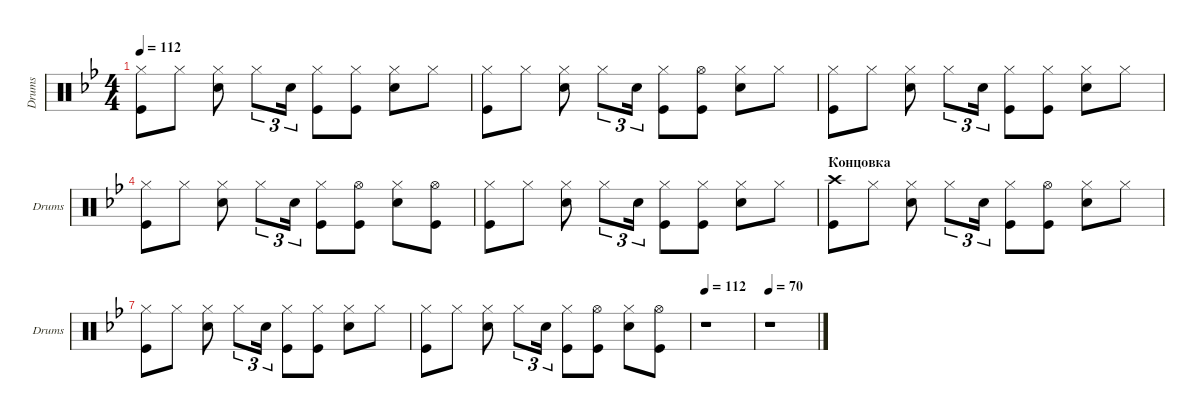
\defaultSystemsLayout 4
\hideDynamics
\bracketExtendMode groupsimilarinstruments
\singleTrackTrackNamePolicy allsystems
\multiTrackTrackNamePolicy allsystems
\otherSystemsTrackNameOrientation horizontal
\defaultBarNumberDisplay FirstOfSystem
\track ("Drums" "Drums") {instrument percussion}
\staff {score}
\articulation defaults
\ts (4 4)
\tempo 112
\clef neutral
\ks gminor
("Kick (hit)" "Hi-Hat (closed)").8{dy mf} "Hi-Hat (closed)".8 ("Hi-Hat (closed)" "Snare (hit) 2").8 "Hi-Hat (closed)".8{tu (3 2)} "Snare (hit) 2".16{tu (3 2)} ("Hi-Hat (closed)" "Kick (hit)").8 ("Hi-Hat (closed)" "Kick (hit)").8 ("Hi-Hat (closed)" "Snare (hit) 2").8 "Hi-Hat (closed)".8 |
("Kick (hit)" "Hi-Hat (closed)").8 "Hi-Hat (closed)".8 ("Hi-Hat (closed)" "Snare (hit) 2").8 "Hi-Hat (closed)".8{tu (3 2)} "Snare (hit) 2".16{tu (3 2)} ("Hi-Hat (closed)" "Kick (hit)").8 ("Hi-Hat (open)" "Kick (hit)").8 ("Hi-Hat (closed)" "Snare (hit) 2").8 "Hi-Hat (closed)".8 |
\scale
0.177692 ("Kick (hit)" "Hi-Hat (closed)").8 "Hi-Hat (closed)".8 ("Hi-Hat (closed)" "Snare (hit) 2").8 "Hi-Hat (closed)".8{tu (3 2)} "Snare (hit) 2".16{tu (3 2)} ("Hi-Hat (closed)" "Kick (hit)").8 ("Hi-Hat (closed)" "Kick (hit)").8 ("Hi-Hat (closed)" "Snare (hit) 2").8 "Hi-Hat (closed)".8 |
\scale
0.153077 ("Kick (hit)" "Hi-Hat (closed)").8 "Hi-Hat (closed)".8 ("Hi-Hat (closed)" "Snare (hit) 2").8 "Hi-Hat (closed)".8{tu (3 2)} "Snare (hit) 2".16{tu (3 2)} ("Hi-Hat (closed)" "Kick (hit)").8 ("Hi-Hat (open)" "Kick (hit)").8 ("Hi-Hat (closed)" "Snare (hit) 2").8 ("Hi-Hat (open)" "Kick (hit)").8 |
\scale
0.153077 ("Kick (hit)" "Hi-Hat (closed)").8 "Hi-Hat (closed)".8 ("Hi-Hat (closed)" "Snare (hit) 2").8 "Hi-Hat (closed)".8{tu (3 2)} "Snare (hit) 2".16{tu (3 2)} ("Hi-Hat (closed)" "Kick (hit)").8 ("Hi-Hat (closed)" "Kick (hit)").8 ("Hi-Hat (closed)" "Snare (hit) 2").8 "Hi-Hat (closed)".8 |
\section ("" "Концовка")
\scale
0.153077 ("Kick (hit)" "Crash high (hit)").8 "Hi-Hat (closed)".8 ("Hi-Hat (closed)" "Snare (hit) 2").8 "Hi-Hat (closed)".8{tu (3 2)} "Snare (hit) 2".16{tu (3 2)} ("Hi-Hat (closed)" "Kick (hit)").8 ("Hi-Hat (open)" "Kick (hit)").8 ("Hi-Hat (closed)" "Snare (hit) 2").8 "Hi-Hat (closed)".8 |
\scale
0.153077 ("Kick (hit)" "Hi-Hat (closed)").8 "Hi-Hat (closed)".8 ("Hi-Hat (closed)" "Snare (hit) 2").8 "Hi-Hat (closed)".8{tu (3 2)} "Snare (hit) 2".16{tu (3 2)} ("Hi-Hat (closed)" "Kick (hit)").8 ("Hi-Hat (closed)" "Kick (hit)").8 ("Hi-Hat (closed)" "Snare (hit) 2").8 "Hi-Hat (closed)".8 |
\scale
0.153077 ("Kick (hit)" "Hi-Hat (closed)").8 "Hi-Hat (closed)".8 ("Hi-Hat (closed)" "Snare (hit) 2").8 "Hi-Hat (closed)".8{tu (3 2)} "Snare (hit) 2".16{tu (3 2)} ("Hi-Hat (closed)" "Kick (hit)").8 ("Hi-Hat (open)" "Kick (hit)").8 ("Hi-Hat (closed)" "Snare (hit) 2").8 ("Hi-Hat (open)" "Kick (hit)").8 |
\tempo 112
\scale
0.0271062 r.1 |
\tempo 70
\scale
0.0298168 r.1
